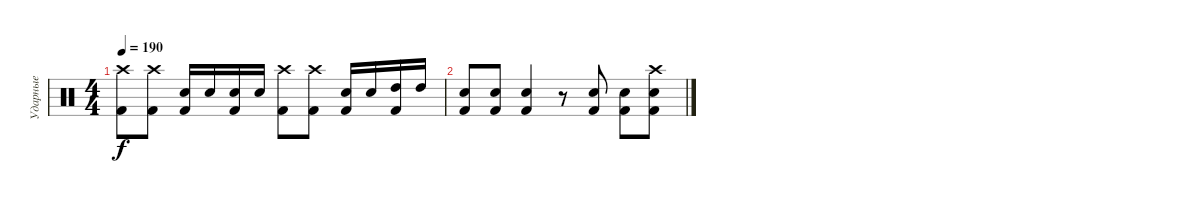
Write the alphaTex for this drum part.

\track ("Ударные" "Ударные") {instrument percussion}
\staff {score}
\articulation defaults
\ts (4 4)
\tempo 190
\clef neutral
\ks c
("Crash high (hit)" "Kick (hit) 2").8{dy f} ("Crash high (hit)" "Kick (hit) 2").8 ("Electric Snare (hit)" "Kick (hit) 2").16 "Electric Snare (hit)".16 ("Electric Snare (hit)" "Kick (hit) 2").16 "Electric Snare (hit)".16 ("Crash high (hit)" "Kick (hit) 2").8 ("Crash high (hit)" "Kick (hit) 2").8 ("Electric Snare (hit)" "Kick (hit) 2").16 "Electric Snare (hit)".16 ("High Tom (hit)" "Kick (hit) 2").16 "High Tom (hit)".16 |
("Electric Snare (hit)" "Kick (hit) 2").8 ("Electric Snare (hit)" "Kick (hit) 2").8 ("Electric Snare (hit)" "Kick (hit) 2").4 r.8 ("Electric Snare (hit)" "Kick (hit) 2").8 ("Electric Snare (hit)" "Kick (hit) 2").8 ("Crash high (hit)" "Electric Snare (hit)" "Kick (hit) 2").8
